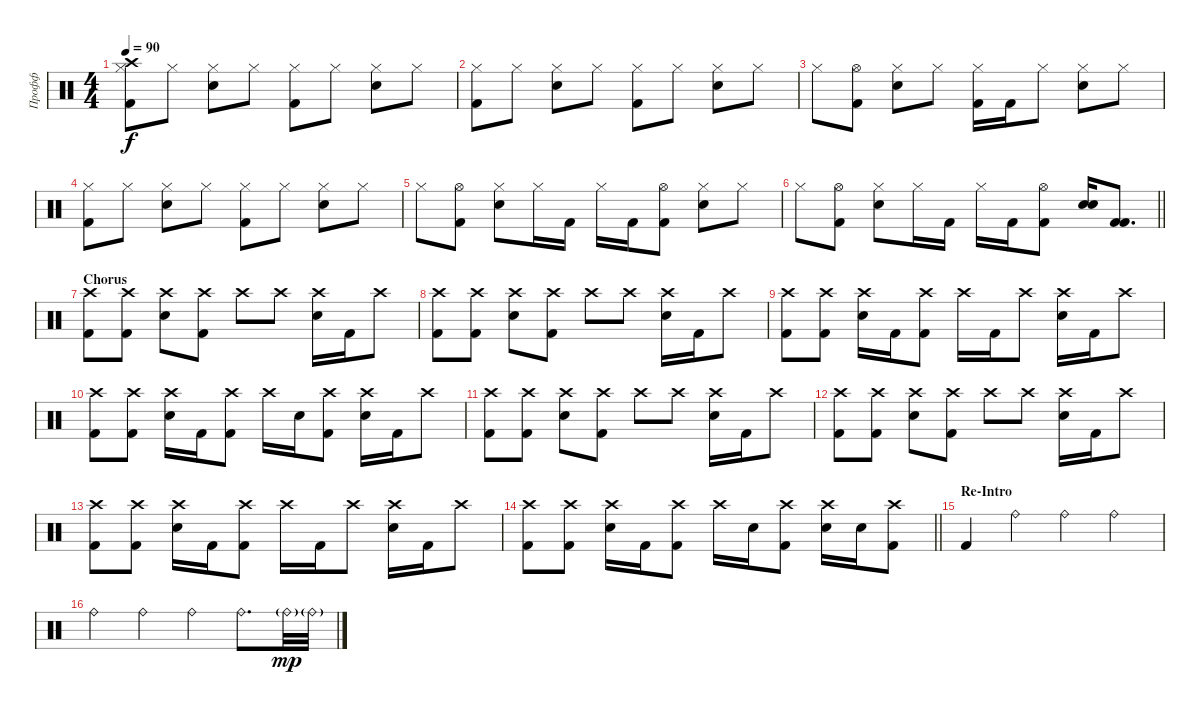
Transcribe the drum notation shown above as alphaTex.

\track ("Профф" "Профф") {instrument percussion}
\staff {score}
\articulation defaults
\ts (4 4)
\tempo 90
\clef neutral
\ks c
("Hi-Hat (closed)" "Crash high (hit)" "Kick (hit) 2").8{dy f} "Hi-Hat (closed)".8 ("Hi-Hat (closed)" "Snare (hit) 2").8 "Hi-Hat (closed)".8 ("Hi-Hat (closed)" "Kick (hit) 2").8 "Hi-Hat (closed)".8 ("Hi-Hat (closed)" "Snare (hit) 2").8 "Hi-Hat (closed)".8 |
("Hi-Hat (closed)" "Kick (hit) 2").8 "Hi-Hat (closed)".8 ("Hi-Hat (closed)" "Snare (hit) 2").8 "Hi-Hat (closed)".8 ("Hi-Hat (closed)" "Kick (hit) 2").8 "Hi-Hat (closed)".8 ("Hi-Hat (closed)" "Snare (hit) 2").8 "Hi-Hat (closed)".8 |
"Hi-Hat (closed)".8 ("Hi-Hat (open)" "Kick (hit) 2").8 ("Hi-Hat (closed)" "Snare (hit) 2").8 "Hi-Hat (closed)".8 ("Hi-Hat (closed)" "Kick (hit) 2").16 "Kick (hit) 2".16 "Hi-Hat (closed)".8 ("Hi-Hat (closed)" "Snare (hit) 2").8 "Hi-Hat (closed)".8 |
("Hi-Hat (closed)" "Kick (hit) 2").8 "Hi-Hat (closed)".8 ("Hi-Hat (closed)" "Snare (hit) 2").8 "Hi-Hat (closed)".8 ("Hi-Hat (closed)" "Kick (hit) 2").8 "Hi-Hat (closed)".8 ("Hi-Hat (closed)" "Snare (hit) 2").8 "Hi-Hat (closed)".8 |
"Hi-Hat (closed)".8 ("Hi-Hat (open)" "Kick (hit) 2").8 ("Hi-Hat (closed)" "Snare (hit) 2").8 "Hi-Hat (closed)".16 "Kick (hit) 2".16 "Hi-Hat (closed)".16 "Kick (hit) 2".16 ("Hi-Hat (open)" "Kick (hit) 2").8 ("Hi-Hat (closed)" "Snare (hit) 2").8 "Hi-Hat (closed)".8 |
\barLineRight lightlight "Hi-Hat (closed)".8
("Hi-Hat (open)" "Kick (hit) 2").8 ("Hi-Hat (closed)" "Snare (hit) 2").8 "Hi-Hat (closed)".16 "Kick (hit) 2".16 "Hi-Hat (closed)".16 "Kick (hit) 2".16 ("Hi-Hat (open)" "Kick (hit) 2").8 ("Snare (hit) 2" "Snare (hit) 2").16{bu 60} ("Kick (hit) 2" "Kick (hit) 2").8{d} |
\section ("" "Chorus")
("Crash high (hit)" "Kick (hit) 2").8 ("Crash high (hit)" "Kick (hit) 2").8 ("Crash high (hit)" "Snare (hit) 2").8 ("Crash high (hit)" "Kick (hit) 2").8 "Crash high (hit)".8 "Crash high (hit)".8 ("Crash high (hit)" "Snare (hit) 2").16 "Kick (hit) 2".16 "Crash high (hit)".8 |
("Crash high (hit)" "Kick (hit) 2").8 ("Crash high (hit)" "Kick (hit) 2").8 ("Crash high (hit)" "Snare (hit) 2").8 ("Crash high (hit)" "Kick (hit) 2").8 "Crash high (hit)".8 "Crash high (hit)".8 ("Crash high (hit)" "Snare (hit) 2").16 "Kick (hit) 2".16 "Crash high (hit)".8 |
("Crash high (hit)" "Kick (hit) 2").8 ("Crash high (hit)" "Kick (hit) 2").8 ("Crash high (hit)" "Snare (hit) 2").16 "Kick (hit) 2".16 ("Crash high (hit)" "Kick (hit) 2").8 "Crash high (hit)".16 "Kick (hit) 2".16 "Crash high (hit)".8 ("Crash high (hit)" "Snare (hit) 2").16 "Kick (hit) 2".16 "Crash high (hit)".8 |
("Crash high (hit)" "Kick (hit) 2").8 ("Crash high (hit)" "Kick (hit) 2").8 ("Crash high (hit)" "Snare (hit) 2").16 "Kick (hit) 2".16 ("Crash high (hit)" "Kick (hit) 2").8 "Crash high (hit)".16 "Snare (hit) 2".16 ("Crash high (hit)" "Kick (hit) 2").8 ("Crash high (hit)" "Snare (hit) 2").16 "Kick (hit) 2".16 "Crash high (hit)".8 |
("Crash high (hit)" "Kick (hit) 2").8 ("Crash high (hit)" "Kick (hit) 2").8 ("Crash high (hit)" "Snare (hit) 2").8 ("Crash high (hit)" "Kick (hit) 2").8 "Crash high (hit)".8 "Crash high (hit)".8 ("Crash high (hit)" "Snare (hit) 2").16 "Kick (hit) 2".16 "Crash high (hit)".8 |
("Crash high (hit)" "Kick (hit) 2").8 ("Crash high (hit)" "Kick (hit) 2").8 ("Crash high (hit)" "Snare (hit) 2").8 ("Crash high (hit)" "Kick (hit) 2").8 "Crash high (hit)".8 "Crash high (hit)".8 ("Crash high (hit)" "Snare (hit) 2").16 "Kick (hit) 2".16 "Crash high (hit)".8 |
("Crash high (hit)" "Kick (hit) 2").8 ("Crash high (hit)" "Kick (hit) 2").8 ("Crash high (hit)" "Snare (hit) 2").16 "Kick (hit) 2".16 ("Crash high (hit)" "Kick (hit) 2").8 "Crash high (hit)".16 "Kick (hit) 2".16 "Crash high (hit)".8 ("Crash high (hit)" "Snare (hit) 2").16 "Kick (hit) 2".16 "Crash high (hit)".8 |
\barLineRight lightlight
("Crash high (hit)" "Kick (hit) 2").8 ("Crash high (hit)" "Kick (hit) 2").8 ("Crash high (hit)" "Snare (hit) 2").16 "Kick (hit) 2".16 ("Crash high (hit)" "Kick (hit) 2").8 "Crash high (hit)".16 "Snare (hit) 2".16 ("Crash high (hit)" "Kick (hit) 2").8 ("Crash high (hit)" "Snare (hit) 2").16 "Snare (hit) 2".16 ("Crash high (hit)" "Kick (hit) 2").8 |
\section ("" "Re-Intro")
"Kick (hit) 2".4 "Ride (bell)".4 "Ride (bell)".4 "Ride (bell)".4 |
"Ride (bell)".4 "Ride (bell)".4 "Ride (bell)".4 "Ride (bell)".8{d} "Ride (bell)"{g}.32{dy mp} "Ride (bell)"{g}.32
